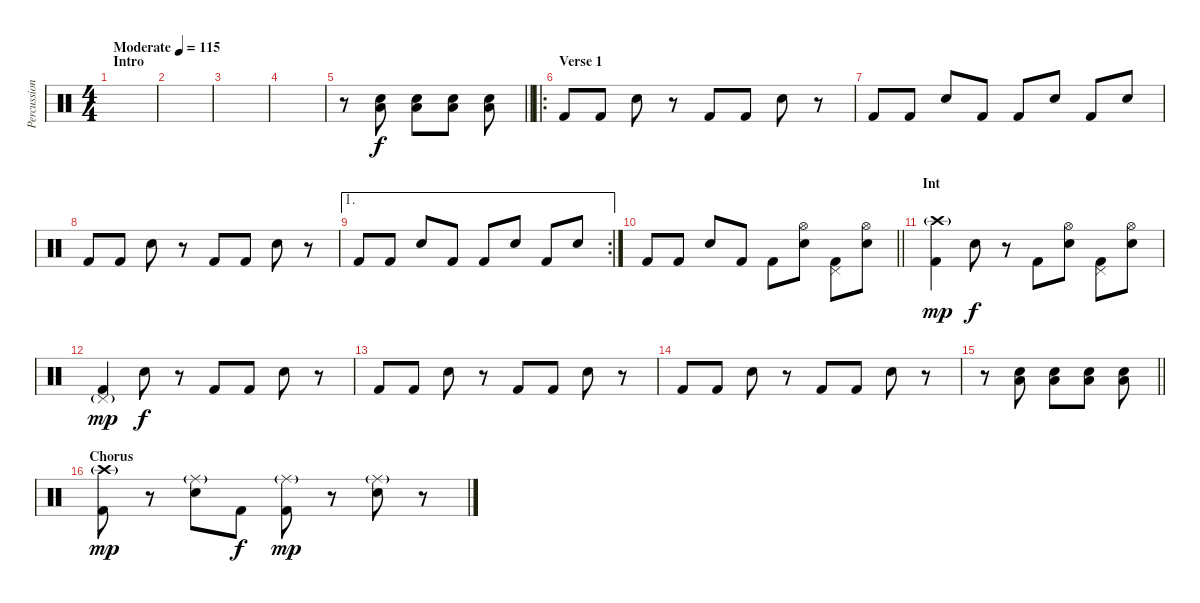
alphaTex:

\track ("Percussion" "Percussion") {instrument percussion}
\staff {score}
\articulation defaults
\ts (4 4)
\section ("" "Intro")
\tempo (115 "Moderate")
\clef neutral
\ks c
|
|
|
|
\barLineRight lightlight
r.8 ("Low Floor Tom (hit)" "Electric Snare (hit)").8 ("Low Floor Tom (hit)" "Electric Snare (hit)").8 ("Low Floor Tom (hit)" "Electric Snare (hit)").8 ("Low Floor Tom (hit)" "Electric Snare (hit)").8 |
\ro
\section ("" "Verse 1")
"Kick (hit) 2".8 "Kick (hit) 2".8 "Electric Snare (hit)".8 r.8 "Kick (hit) 2".8 "Kick (hit) 2".8 "Electric Snare (hit)".8 r.8 |
"Kick (hit) 2".8 "Kick (hit) 2".8 "Electric Snare (hit)".8 "Kick (hit) 2".8 "Kick (hit) 2".8 "Electric Snare (hit)".8 "Kick (hit) 2".8 "Electric Snare (hit)".8 |
"Kick (hit) 2".8 "Kick (hit) 2".8 "Electric Snare (hit)".8 r.8 "Kick (hit) 2".8 "Kick (hit) 2".8 "Electric Snare (hit)".8 r.8 |
\ae 1
\rc 2 "Kick (hit) 2".8 "Kick (hit) 2".8 "Electric Snare (hit)".8 "Kick (hit) 2".8 "Kick (hit) 2".8 "Electric Snare (hit)".8 "Kick (hit) 2".8 "Electric Snare (hit)".8
|
\barLineRight lightlight "Kick (hit) 2".8 "Kick (hit) 2".8 "Electric Snare (hit)".8 "Kick (hit) 2".8 "Kick (hit) 2".8
("Hi-Hat (open)" "Electric Snare (hit)").8 ("Pedal Hi-Hat (hit)" "Kick (hit) 2").8 ("Hi-Hat (open)" "Electric Snare (hit)").8 |
\section ("" "Int")
("Crash high (hit)"{g} "Kick (hit) 2").4{dy mp} "Electric Snare (hit)".8{dy f} r.8 "Kick (hit) 2".8 ("Hi-Hat (open)" "Electric Snare (hit)").8 ("Pedal Hi-Hat (hit)" "Kick (hit) 2").8 ("Hi-Hat (open)" "Electric Snare (hit)").8 |
("Pedal Hi-Hat (hit)"{g} "Kick (hit) 2").4{dy mp} "Electric Snare (hit)".8{dy f} r.8 "Kick (hit) 2".8 "Kick (hit) 2".8 "Electric Snare (hit)".8 r.8 |
"Kick (hit) 2".8 "Kick (hit) 2".8 "Electric Snare (hit)".8 r.8 "Kick (hit) 2".8 "Kick (hit) 2".8 "Electric Snare (hit)".8 r.8 |
"Kick (hit) 2".8 "Kick (hit) 2".8 "Electric Snare (hit)".8 r.8 "Kick (hit) 2".8 "Kick (hit) 2".8 "Electric Snare (hit)".8 r.8 |
\barLineRight lightlight
r.8 ("Electric Snare (hit)" "Low Floor Tom (hit)").8 ("Electric Snare (hit)" "Low Floor Tom (hit)").8 ("Electric Snare (hit)" "Low Floor Tom (hit)").8 ("Electric Snare (hit)" "Low Floor Tom (hit)").8 |
\section ("" "Chorus")
("Crash high (hit)"{g} "Kick (hit) 2").8{dy mp} r.8 ("Ride (middle)"{g} "Electric Snare (hit)").8 "Kick (hit) 2".8{dy f} ("Ride (middle)"{g} "Kick (hit) 2").8{dy mp} r.8 ("Ride (middle)"{g} "Electric Snare (hit)").8 r.8
